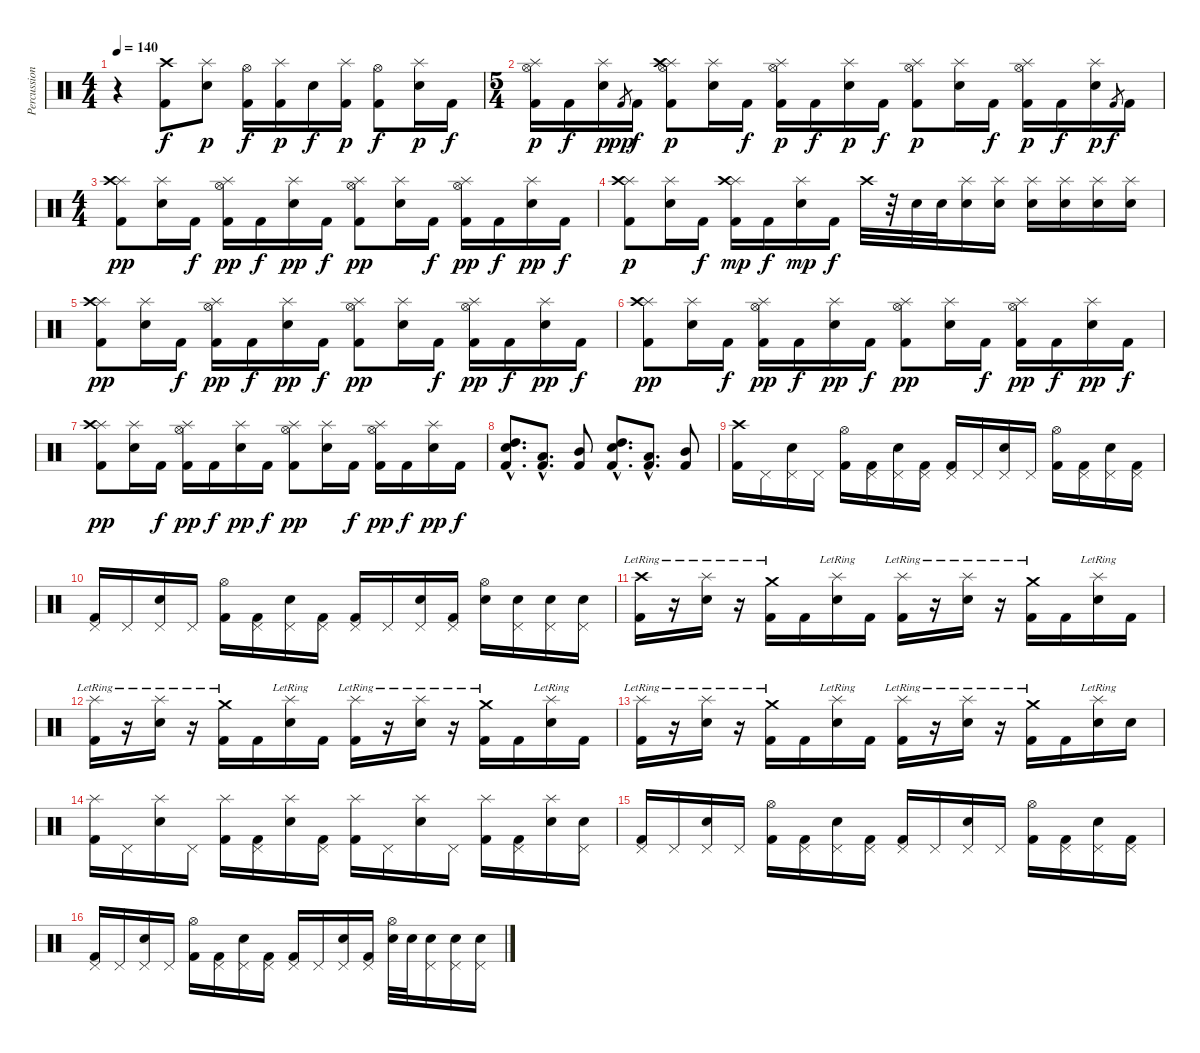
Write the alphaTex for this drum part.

\track ("Percussion" "Percussion") {instrument percussion}
\staff {score}
\articulation defaults
\ts (4 4)
\tempo 140
\clef neutral
\ks c
r.4{dy f} ("Crash high (hit)" "Kick (hit) 2").8 ("Splash (hit)" "Electric Snare (hit)").8{dy p} ("Hi-Hat (open)" "Kick (hit) 2").16{dy f} ("Splash (hit)" "Kick (hit) 2").16{dy p} "Electric Snare (hit)".16{dy f} ("Splash (hit)" "Kick (hit) 2").16{dy p} ("Hi-Hat (open)" "Kick (hit) 2").8{dy f} ("Splash (hit)" "Electric Snare (hit)").16{dy p} "Kick (hit) 2".16{dy f} |
\ts (5 4)
("Splash (hit)" "Hi-Hat (open)" "Kick (hit) 2").16{dy p} "Kick (hit) 2".16{dy f} ("Splash (hit)" "Electric Snare (hit)").16{dy p} "Kick (hit) 2".8{gr dy pp} "Kick (hit) 2".16{dy f} ("Splash (hit)" "Crash high (hit)" "Hi-Hat (open)" "Kick (hit) 2").8{dy p} ("Splash (hit)" "Electric Snare (hit)").16 "Kick (hit) 2".16{dy f} ("Splash (hit)" "Hi-Hat (open)" "Kick (hit) 2").16{dy p} "Kick (hit) 2".16{dy f} ("Splash (hit)" "Electric Snare (hit)").16{dy p} "Kick (hit) 2".16{dy f} ("Splash (hit)" "Hi-Hat (open)" "Kick (hit) 2").8{dy p} ("Splash (hit)" "Electric Snare (hit)").16 "Kick (hit) 2".16{dy f} ("Splash (hit)" "Hi-Hat (open)" "Kick (hit) 2").16{dy p} "Kick (hit) 2".16{dy f} ("Splash (hit)" "Electric Snare (hit)").16{dy p} "Kick (hit) 2".8{gr dy f} "Kick (hit) 2".16 |
\ts (4 4)
("Splash (hit)" "Crash high (hit)" "Kick (hit) 2").8{dy pp} ("Splash (hit)" "Electric Snare (hit)").16 "Kick (hit) 2".16{dy f} ("Splash (hit)" "Hi-Hat (open)" "Kick (hit) 2").16{dy pp} "Kick (hit) 2".16{dy f} ("Splash (hit)" "Electric Snare (hit)").16{dy pp} "Kick (hit) 2".16{dy f} ("Splash (hit)" "Hi-Hat (open)" "Kick (hit) 2").8{dy pp} ("Splash (hit)" "Electric Snare (hit)").16 "Kick (hit) 2".16{dy f} ("Splash (hit)" "Hi-Hat (open)" "Kick (hit) 2").16{dy pp} "Kick (hit) 2".16{dy f} ("Splash (hit)" "Electric Snare (hit)").16{dy pp} "Kick (hit) 2".16{dy f} |
("Splash (hit)" "Crash high (hit)" "Kick (hit) 2").8{dy p} ("Splash (hit)" "Electric Snare (hit)").16 "Kick (hit) 2".16{dy f} ("Splash (hit)" "Crash high (hit)" "Kick (hit) 2").16{dy mp} "Kick (hit) 2".16{dy f} ("Splash (hit)" "Electric Snare (hit)").16{dy mp} "Kick (hit) 2".16{dy f} "Crash high (hit)".32 r.32 "Electric Snare (hit)".32 "Electric Snare (hit)".32 ("Splash (hit)" "Electric Snare (hit)").16 ("Splash (hit)" "Electric Snare (hit)").16 ("Splash (hit)" "Electric Snare (hit)").16 ("Splash (hit)" "Electric Snare (hit)").16 ("Splash (hit)" "Electric Snare (hit)").16 ("Splash (hit)" "Electric Snare (hit)").16 |
("Splash (hit)" "Crash high (hit)" "Kick (hit) 2").8{dy pp} ("Splash (hit)" "Electric Snare (hit)").16 "Kick (hit) 2".16{dy f} ("Splash (hit)" "Hi-Hat (open)" "Kick (hit) 2").16{dy pp} "Kick (hit) 2".16{dy f} ("Splash (hit)" "Electric Snare (hit)").16{dy pp} "Kick (hit) 2".16{dy f} ("Splash (hit)" "Hi-Hat (open)" "Kick (hit) 2").8{dy pp} ("Splash (hit)" "Electric Snare (hit)").16 "Kick (hit) 2".16{dy f} ("Splash (hit)" "Hi-Hat (open)" "Kick (hit) 2").16{dy pp} "Kick (hit) 2".16{dy f} ("Splash (hit)" "Electric Snare (hit)").16{dy pp} "Kick (hit) 2".16{dy f} |
("Splash (hit)" "Crash high (hit)" "Kick (hit) 2").8{dy pp} ("Splash (hit)" "Electric Snare (hit)").16 "Kick (hit) 2".16{dy f} ("Splash (hit)" "Hi-Hat (open)" "Kick (hit) 2").16{dy pp} "Kick (hit) 2".16{dy f} ("Splash (hit)" "Electric Snare (hit)").16{dy pp} "Kick (hit) 2".16{dy f} ("Splash (hit)" "Hi-Hat (open)" "Kick (hit) 2").8{dy pp} ("Splash (hit)" "Electric Snare (hit)").16 "Kick (hit) 2".16{dy f} ("Splash (hit)" "Hi-Hat (open)" "Kick (hit) 2").16{dy pp} "Kick (hit) 2".16{dy f} ("Splash (hit)" "Electric Snare (hit)").16{dy pp} "Kick (hit) 2".16{dy f} |
("Splash (hit)" "Crash high (hit)" "Kick (hit) 2").8{dy pp} ("Splash (hit)" "Electric Snare (hit)").16 "Kick (hit) 2".16{dy f} ("Splash (hit)" "Hi-Hat (open)" "Kick (hit) 2").16{dy pp} "Kick (hit) 2".16{dy f} ("Splash (hit)" "Electric Snare (hit)").16{dy pp} "Kick (hit) 2".16{dy f} ("Splash (hit)" "Hi-Hat (open)" "Kick (hit) 2").8{dy pp} ("Splash (hit)" "Electric Snare (hit)").16 "Kick (hit) 2".16{dy f} ("Splash (hit)" "Hi-Hat (open)" "Kick (hit) 2").16{dy pp} "Kick (hit) 2".16{dy f} ("Splash (hit)" "Electric Snare (hit)").16{dy pp} "Kick (hit) 2".16{dy f} |
("Electric Snare (hit)"{hac} "High Tom (hit)"{hac} "Kick (hit) 2"{hac}).8{d} ("Low Tom (hit)"{hac} "Kick (hit) 2"{hac}).8{d} ("Mid Tom (hit)" "Kick (hit) 2").8 ("Electric Snare (hit)"{hac} "High Tom (hit)"{hac} "Kick (hit) 2"{hac}).8{d} ("Low Tom (hit)"{hac} "Kick (hit) 2"{hac}).8{d} ("Mid Tom (hit)" "Kick (hit) 2").8 |
("Crash high (hit)" "Kick (hit) 2").16 "Pedal Hi-Hat (hit)".16 ("Pedal Hi-Hat (hit)" "Electric Snare (hit)").16 "Pedal Hi-Hat (hit)".16 ("Hi-Hat (open)" "Kick (hit) 2").16 ("Pedal Hi-Hat (hit)" "Kick (hit) 2").16 ("Pedal Hi-Hat (hit)" "Electric Snare (hit)").16 ("Pedal Hi-Hat (hit)" "Kick (hit) 2").16 ("Pedal Hi-Hat (hit)" "Kick (hit) 2").16 "Pedal Hi-Hat (hit)".16 ("Pedal Hi-Hat (hit)" "Electric Snare (hit)").16 "Pedal Hi-Hat (hit)".16 ("Hi-Hat (open)" "Kick (hit) 2").16 ("Pedal Hi-Hat (hit)" "Kick (hit) 2").16 ("Pedal Hi-Hat (hit)" "Electric Snare (hit)").16 ("Pedal Hi-Hat (hit)" "Kick (hit) 2").16 |
("Pedal Hi-Hat (hit)" "Kick (hit) 2").16 "Pedal Hi-Hat (hit)".16 ("Pedal Hi-Hat (hit)" "Electric Snare (hit)").16 "Pedal Hi-Hat (hit)".16 ("Hi-Hat (open)" "Kick (hit) 2").16 ("Pedal Hi-Hat (hit)" "Kick (hit) 2").16 ("Pedal Hi-Hat (hit)" "Electric Snare (hit)").16 ("Pedal Hi-Hat (hit)" "Kick (hit) 2").16 ("Pedal Hi-Hat (hit)" "Kick (hit) 2").16 "Pedal Hi-Hat (hit)".16 ("Pedal Hi-Hat (hit)" "Electric Snare (hit)").16 ("Pedal Hi-Hat (hit)" "Kick (hit) 2").16 ("Hi-Hat (open)" "Electric Snare (hit)").16 ("Pedal Hi-Hat (hit)" "Electric Snare (hit)").16 ("Pedal Hi-Hat (hit)" "Electric Snare (hit)").16 ("Pedal Hi-Hat (hit)" "Electric Snare (hit)").16 |
("Crash high (hit)"{lr} "Kick (hit) 2").16 r.16 ("Splash (hit)"{lr} "Electric Snare (hit)").16 r.16 ("Crash medium (hit)"{lr} "Kick (hit) 2").16 "Kick (hit) 2".16 ("Splash (hit)"{lr} "Electric Snare (hit)").16 "Kick (hit) 2".16 ("Splash (hit)"{lr} "Kick (hit) 2").16 r.16 ("Splash (hit)"{lr} "Electric Snare (hit)").16 r.16 ("Crash medium (hit)"{lr} "Kick (hit) 2").16 "Kick (hit) 2".16 ("Splash (hit)"{lr} "Electric Snare (hit)").16 "Kick (hit) 2".16 |
("Splash (hit)"{lr} "Kick (hit) 2").16 r.16 ("Splash (hit)"{lr} "Electric Snare (hit)").16 r.16 ("Crash medium (hit)"{lr} "Kick (hit) 2").16 "Kick (hit) 2".16 ("Splash (hit)"{lr} "Electric Snare (hit)").16 "Kick (hit) 2".16 ("Splash (hit)"{lr} "Kick (hit) 2").16 r.16 ("Splash (hit)"{lr} "Electric Snare (hit)").16 r.16 ("Crash medium (hit)"{lr} "Kick (hit) 2").16 "Kick (hit) 2".16 ("Splash (hit)"{lr} "Electric Snare (hit)").16 "Kick (hit) 2".16 |
("Splash (hit)"{lr} "Kick (hit) 2").16 r.16 ("Splash (hit)"{lr} "Electric Snare (hit)").16 r.16 ("Crash medium (hit)"{lr} "Kick (hit) 2").16 "Kick (hit) 2".16 ("Splash (hit)"{lr} "Electric Snare (hit)").16 "Kick (hit) 2".16 ("Splash (hit)"{lr} "Kick (hit) 2").16 r.16 ("Splash (hit)"{lr} "Electric Snare (hit)").16 r.16 ("Crash medium (hit)"{lr} "Kick (hit) 2").16 "Kick (hit) 2".16 ("Splash (hit)"{lr} "Electric Snare (hit)").16 "Electric Snare (hit)".16 |
("Splash (hit)" "Kick (hit) 2").16 "Pedal Hi-Hat (hit)".16 ("Splash (hit)" "Electric Snare (hit)").16 "Pedal Hi-Hat (hit)".16 ("Splash (hit)" "Kick (hit) 2").16 ("Pedal Hi-Hat (hit)" "Kick (hit) 2").16 ("Splash (hit)" "Electric Snare (hit)").16 ("Pedal Hi-Hat (hit)" "Kick (hit) 2").16 ("Splash (hit)" "Kick (hit) 2").16 "Pedal Hi-Hat (hit)".16 ("Splash (hit)" "Electric Snare (hit)").16 "Pedal Hi-Hat (hit)".16 ("Splash (hit)" "Kick (hit) 2").16 ("Pedal Hi-Hat (hit)" "Kick (hit) 2").16 ("Splash (hit)" "Electric Snare (hit)").16 ("Pedal Hi-Hat (hit)" "Electric Snare (hit)").16 |
("Pedal Hi-Hat (hit)" "Kick (hit) 2").16 "Pedal Hi-Hat (hit)".16 ("Pedal Hi-Hat (hit)" "Electric Snare (hit)").16 "Pedal Hi-Hat (hit)".16 ("Hi-Hat (open)" "Kick (hit) 2").16 ("Pedal Hi-Hat (hit)" "Kick (hit) 2").16 ("Pedal Hi-Hat (hit)" "Electric Snare (hit)").16 ("Pedal Hi-Hat (hit)" "Kick (hit) 2").16 ("Pedal Hi-Hat (hit)" "Kick (hit) 2").16 "Pedal Hi-Hat (hit)".16 ("Pedal Hi-Hat (hit)" "Electric Snare (hit)").16 "Pedal Hi-Hat (hit)".16 ("Hi-Hat (open)" "Kick (hit) 2").16 ("Pedal Hi-Hat (hit)" "Kick (hit) 2").16 ("Pedal Hi-Hat (hit)" "Electric Snare (hit)").16 ("Pedal Hi-Hat (hit)" "Kick (hit) 2").16 |
("Pedal Hi-Hat (hit)" "Kick (hit) 2").16 "Pedal Hi-Hat (hit)".16 ("Pedal Hi-Hat (hit)" "Electric Snare (hit)").16 "Pedal Hi-Hat (hit)".16 ("Hi-Hat (open)" "Kick (hit) 2").16 ("Pedal Hi-Hat (hit)" "Kick (hit) 2").16 ("Pedal Hi-Hat (hit)" "Electric Snare (hit)").16 ("Pedal Hi-Hat (hit)" "Kick (hit) 2").16 ("Pedal Hi-Hat (hit)" "Kick (hit) 2").16 "Pedal Hi-Hat (hit)".16 ("Pedal Hi-Hat (hit)" "Electric Snare (hit)").16 ("Pedal Hi-Hat (hit)" "Kick (hit) 2").16 ("Hi-Hat (open)" "Electric Snare (hit)").32 "Electric Snare (hit)".32 ("Pedal Hi-Hat (hit)" "Electric Snare (hit)").16 ("Pedal Hi-Hat (hit)" "Electric Snare (hit)").16 ("Pedal Hi-Hat (hit)" "Electric Snare (hit)").16
